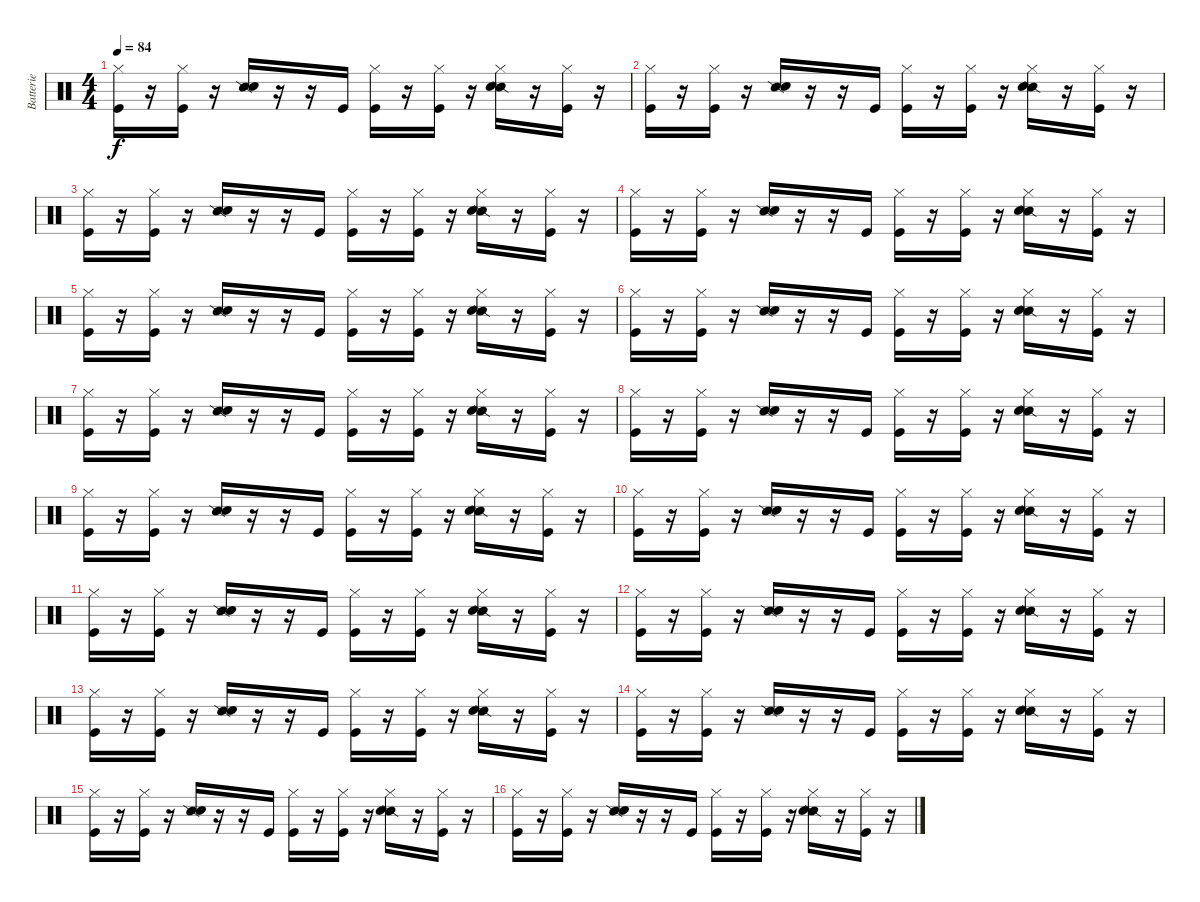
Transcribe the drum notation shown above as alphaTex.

\track ("Batterie" "Batterie") {instrument percussion}
\staff {score}
\articulation defaults
\ts (4 4)
\tempo 84
\clef neutral
\ks c
("Hi-Hat (closed)" "Kick (hit)").16{dy f} r.16 ("Hi-Hat (closed)" "Kick (hit)").16 r.16 ("Snare (side stick) 2" "Electric Snare (hit)").16 r.16 r.16 "Kick (hit)".16 ("Hi-Hat (closed)" "Kick (hit)").16 r.16 ("Hi-Hat (closed)" "Kick (hit)").16 r.16 ("Hi-Hat (closed)" "Snare (side stick) 2" "Electric Snare (hit)").16 r.16 ("Hi-Hat (closed)" "Kick (hit)").16 r.16 |
("Hi-Hat (closed)" "Kick (hit)").16 r.16 ("Hi-Hat (closed)" "Kick (hit)").16 r.16 ("Snare (side stick) 2" "Electric Snare (hit)").16 r.16 r.16 "Kick (hit)".16 ("Hi-Hat (closed)" "Kick (hit)").16 r.16 ("Hi-Hat (closed)" "Kick (hit)").16 r.16 ("Hi-Hat (closed)" "Snare (side stick) 2" "Electric Snare (hit)").16 r.16 ("Hi-Hat (closed)" "Kick (hit)").16 r.16 |
("Hi-Hat (closed)" "Kick (hit)").16 r.16 ("Hi-Hat (closed)" "Kick (hit)").16 r.16 ("Snare (side stick) 2" "Electric Snare (hit)").16 r.16 r.16 "Kick (hit)".16 ("Hi-Hat (closed)" "Kick (hit)").16 r.16 ("Hi-Hat (closed)" "Kick (hit)").16 r.16 ("Hi-Hat (closed)" "Snare (side stick) 2" "Electric Snare (hit)").16 r.16 ("Hi-Hat (closed)" "Kick (hit)").16 r.16 |
("Hi-Hat (closed)" "Kick (hit)").16 r.16 ("Hi-Hat (closed)" "Kick (hit)").16 r.16 ("Snare (side stick) 2" "Electric Snare (hit)").16 r.16 r.16 "Kick (hit)".16 ("Hi-Hat (closed)" "Kick (hit)").16 r.16 ("Hi-Hat (closed)" "Kick (hit)").16 r.16 ("Hi-Hat (closed)" "Snare (side stick) 2" "Electric Snare (hit)").16 r.16 ("Hi-Hat (closed)" "Kick (hit)").16 r.16 |
("Hi-Hat (closed)" "Kick (hit)").16 r.16 ("Hi-Hat (closed)" "Kick (hit)").16 r.16 ("Snare (side stick) 2" "Electric Snare (hit)").16 r.16 r.16 "Kick (hit)".16 ("Hi-Hat (closed)" "Kick (hit)").16 r.16 ("Hi-Hat (closed)" "Kick (hit)").16 r.16 ("Hi-Hat (closed)" "Snare (side stick) 2" "Electric Snare (hit)").16 r.16 ("Hi-Hat (closed)" "Kick (hit)").16 r.16 |
("Hi-Hat (closed)" "Kick (hit)").16 r.16 ("Hi-Hat (closed)" "Kick (hit)").16 r.16 ("Snare (side stick) 2" "Electric Snare (hit)").16 r.16 r.16 "Kick (hit)".16 ("Hi-Hat (closed)" "Kick (hit)").16 r.16 ("Hi-Hat (closed)" "Kick (hit)").16 r.16 ("Hi-Hat (closed)" "Snare (side stick) 2" "Electric Snare (hit)").16 r.16 ("Hi-Hat (closed)" "Kick (hit)").16 r.16 |
("Hi-Hat (closed)" "Kick (hit)").16 r.16 ("Hi-Hat (closed)" "Kick (hit)").16 r.16 ("Snare (side stick) 2" "Electric Snare (hit)").16 r.16 r.16 "Kick (hit)".16 ("Hi-Hat (closed)" "Kick (hit)").16 r.16 ("Hi-Hat (closed)" "Kick (hit)").16 r.16 ("Hi-Hat (closed)" "Snare (side stick) 2" "Electric Snare (hit)").16 r.16 ("Hi-Hat (closed)" "Kick (hit)").16 r.16 |
("Hi-Hat (closed)" "Kick (hit)").16 r.16 ("Hi-Hat (closed)" "Kick (hit)").16 r.16 ("Snare (side stick) 2" "Electric Snare (hit)").16 r.16 r.16 "Kick (hit)".16 ("Hi-Hat (closed)" "Kick (hit)").16 r.16 ("Hi-Hat (closed)" "Kick (hit)").16 r.16 ("Hi-Hat (closed)" "Snare (side stick) 2" "Electric Snare (hit)").16 r.16 ("Hi-Hat (closed)" "Kick (hit)").16 r.16 |
("Hi-Hat (closed)" "Kick (hit)").16 r.16 ("Hi-Hat (closed)" "Kick (hit)").16 r.16 ("Snare (side stick) 2" "Electric Snare (hit)").16 r.16 r.16 "Kick (hit)".16 ("Hi-Hat (closed)" "Kick (hit)").16 r.16 ("Hi-Hat (closed)" "Kick (hit)").16 r.16 ("Hi-Hat (closed)" "Snare (side stick) 2" "Electric Snare (hit)").16 r.16 ("Hi-Hat (closed)" "Kick (hit)").16 r.16 |
("Hi-Hat (closed)" "Kick (hit)").16 r.16 ("Hi-Hat (closed)" "Kick (hit)").16 r.16 ("Snare (side stick) 2" "Electric Snare (hit)").16 r.16 r.16 "Kick (hit)".16 ("Hi-Hat (closed)" "Kick (hit)").16 r.16 ("Hi-Hat (closed)" "Kick (hit)").16 r.16 ("Hi-Hat (closed)" "Snare (side stick) 2" "Electric Snare (hit)").16 r.16 ("Hi-Hat (closed)" "Kick (hit)").16 r.16 |
("Hi-Hat (closed)" "Kick (hit)").16 r.16 ("Hi-Hat (closed)" "Kick (hit)").16 r.16 ("Snare (side stick) 2" "Electric Snare (hit)").16 r.16 r.16 "Kick (hit)".16 ("Hi-Hat (closed)" "Kick (hit)").16 r.16 ("Hi-Hat (closed)" "Kick (hit)").16 r.16 ("Hi-Hat (closed)" "Snare (side stick) 2" "Electric Snare (hit)").16 r.16 ("Hi-Hat (closed)" "Kick (hit)").16 r.16 |
("Hi-Hat (closed)" "Kick (hit)").16 r.16 ("Hi-Hat (closed)" "Kick (hit)").16 r.16 ("Snare (side stick) 2" "Electric Snare (hit)").16 r.16 r.16 "Kick (hit)".16 ("Hi-Hat (closed)" "Kick (hit)").16 r.16 ("Hi-Hat (closed)" "Kick (hit)").16 r.16 ("Hi-Hat (closed)" "Snare (side stick) 2" "Electric Snare (hit)").16 r.16 ("Hi-Hat (closed)" "Kick (hit)").16 r.16 |
("Hi-Hat (closed)" "Kick (hit)").16 r.16 ("Hi-Hat (closed)" "Kick (hit)").16 r.16 ("Snare (side stick) 2" "Electric Snare (hit)").16 r.16 r.16 "Kick (hit)".16 ("Hi-Hat (closed)" "Kick (hit)").16 r.16 ("Hi-Hat (closed)" "Kick (hit)").16 r.16 ("Hi-Hat (closed)" "Snare (side stick) 2" "Electric Snare (hit)").16 r.16 ("Hi-Hat (closed)" "Kick (hit)").16 r.16 |
("Hi-Hat (closed)" "Kick (hit)").16 r.16 ("Hi-Hat (closed)" "Kick (hit)").16 r.16 ("Snare (side stick) 2" "Electric Snare (hit)").16 r.16 r.16 "Kick (hit)".16 ("Hi-Hat (closed)" "Kick (hit)").16 r.16 ("Hi-Hat (closed)" "Kick (hit)").16 r.16 ("Hi-Hat (closed)" "Snare (side stick) 2" "Electric Snare (hit)").16 r.16 ("Hi-Hat (closed)" "Kick (hit)").16 r.16 |
("Hi-Hat (closed)" "Kick (hit)").16 r.16 ("Hi-Hat (closed)" "Kick (hit)").16 r.16 ("Snare (side stick) 2" "Electric Snare (hit)").16 r.16 r.16 "Kick (hit)".16 ("Hi-Hat (closed)" "Kick (hit)").16 r.16 ("Hi-Hat (closed)" "Kick (hit)").16 r.16 ("Hi-Hat (closed)" "Snare (side stick) 2" "Electric Snare (hit)").16 r.16 ("Hi-Hat (closed)" "Kick (hit)").16 r.16 |
("Hi-Hat (closed)" "Kick (hit)").16 r.16 ("Hi-Hat (closed)" "Kick (hit)").16 r.16 ("Snare (side stick) 2" "Electric Snare (hit)").16 r.16 r.16 "Kick (hit)".16 ("Hi-Hat (closed)" "Kick (hit)").16 r.16 ("Hi-Hat (closed)" "Kick (hit)").16 r.16 ("Hi-Hat (closed)" "Snare (side stick) 2" "Electric Snare (hit)").16 r.16 ("Hi-Hat (closed)" "Kick (hit)").16 r.16
